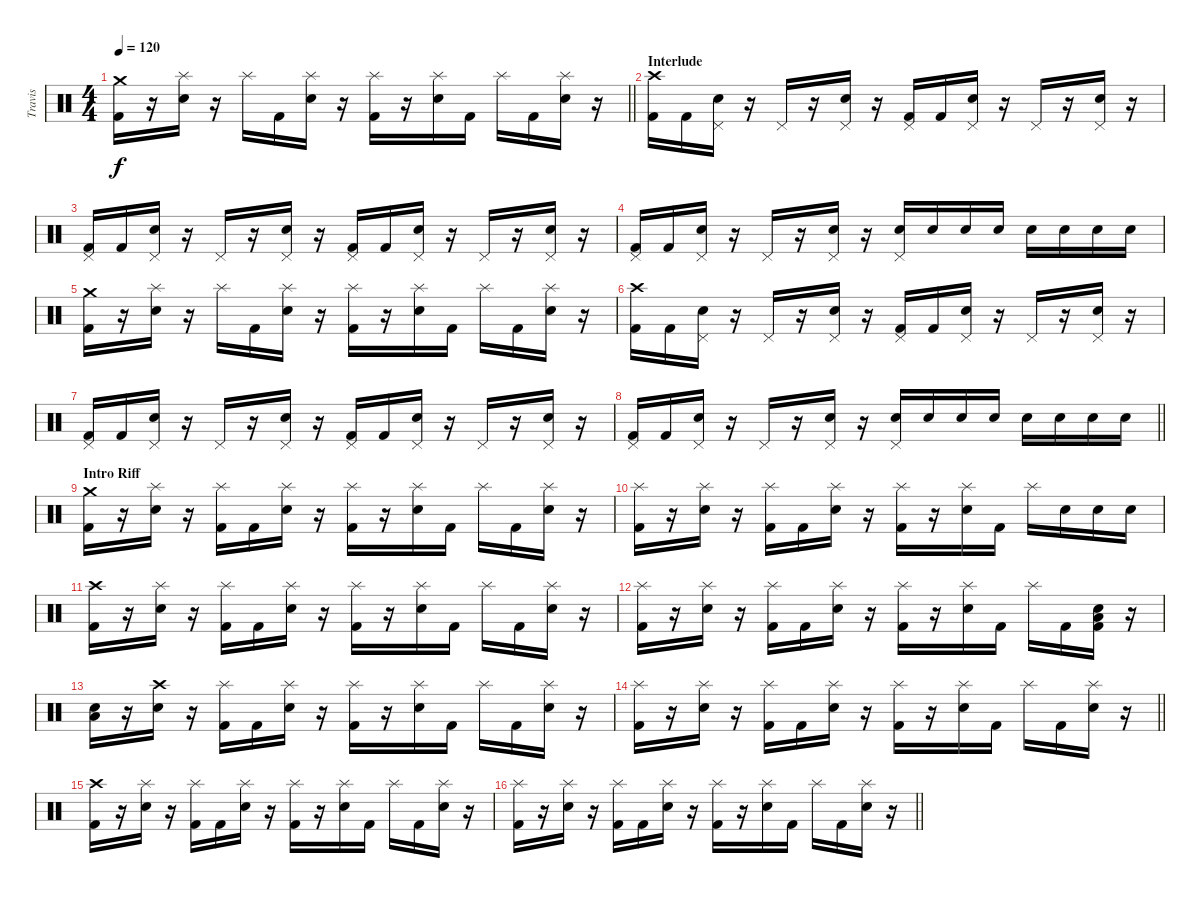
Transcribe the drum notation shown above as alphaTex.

\track ("Travis" "Travis") {instrument percussion}
\staff {score}
\articulation defaults
\ts (4 4)
\tempo 120
\clef neutral
\barLineRight lightlight
\ks c
("Crash medium (hit)" "Kick (hit) 2").16{dy f} r.16 ("Splash (hit)" "Electric Snare (hit)").16 r.16 "Splash (hit)".16 "Kick (hit) 2".16 ("Splash (hit)" "Electric Snare (hit)").16 r.16 ("Splash (hit)" "Kick (hit) 2").16 r.16 ("Splash (hit)" "Electric Snare (hit)").16 "Kick (hit) 2".16 "Splash (hit)".16 "Kick (hit) 2".16 ("Splash (hit)" "Electric Snare (hit)").16 r.16 |
\section ("" "Interlude")
("Crash high (hit)" "Kick (hit) 2").16 "Kick (hit) 2".16 ("Pedal Hi-Hat (hit)" "Electric Snare (hit)").16 r.16 "Pedal Hi-Hat (hit)".16 r.16 ("Pedal Hi-Hat (hit)" "Electric Snare (hit)").16 r.16 ("Pedal Hi-Hat (hit)" "Kick (hit) 2").16 "Kick (hit) 2".16 ("Pedal Hi-Hat (hit)" "Electric Snare (hit)").16 r.16 "Pedal Hi-Hat (hit)".16 r.16 ("Pedal Hi-Hat (hit)" "Electric Snare (hit)").16 r.16 |
("Pedal Hi-Hat (hit)" "Kick (hit) 2").16 "Kick (hit) 2".16 ("Pedal Hi-Hat (hit)" "Electric Snare (hit)").16 r.16 "Pedal Hi-Hat (hit)".16 r.16 ("Pedal Hi-Hat (hit)" "Electric Snare (hit)").16 r.16 ("Pedal Hi-Hat (hit)" "Kick (hit) 2").16 "Kick (hit) 2".16 ("Pedal Hi-Hat (hit)" "Electric Snare (hit)").16 r.16 "Pedal Hi-Hat (hit)".16 r.16 ("Pedal Hi-Hat (hit)" "Electric Snare (hit)").16 r.16 |
("Pedal Hi-Hat (hit)" "Kick (hit) 2").16 "Kick (hit) 2".16 ("Pedal Hi-Hat (hit)" "Electric Snare (hit)").16 r.16 "Pedal Hi-Hat (hit)".16 r.16 ("Pedal Hi-Hat (hit)" "Electric Snare (hit)").16 r.16 ("Pedal Hi-Hat (hit)" "Electric Snare (hit)").16 "Electric Snare (hit)".16 "Electric Snare (hit)".16 "Electric Snare (hit)".16 "Electric Snare (hit)".16 "Electric Snare (hit)".16 "Electric Snare (hit)".16 "Electric Snare (hit)".16 |
("Crash medium (hit)" "Kick (hit) 2").16 r.16 ("Splash (hit)" "Electric Snare (hit)").16 r.16 "Splash (hit)".16 "Kick (hit) 2".16 ("Splash (hit)" "Electric Snare (hit)").16 r.16 ("Splash (hit)" "Kick (hit) 2").16 r.16 ("Splash (hit)" "Electric Snare (hit)").16 "Kick (hit) 2".16 "Splash (hit)".16 "Kick (hit) 2".16 ("Splash (hit)" "Electric Snare (hit)").16 r.16 |
("Crash high (hit)" "Kick (hit) 2").16 "Kick (hit) 2".16 ("Pedal Hi-Hat (hit)" "Electric Snare (hit)").16 r.16 "Pedal Hi-Hat (hit)".16 r.16 ("Pedal Hi-Hat (hit)" "Electric Snare (hit)").16 r.16 ("Pedal Hi-Hat (hit)" "Kick (hit) 2").16 "Kick (hit) 2".16 ("Pedal Hi-Hat (hit)" "Electric Snare (hit)").16 r.16 "Pedal Hi-Hat (hit)".16 r.16 ("Pedal Hi-Hat (hit)" "Electric Snare (hit)").16 r.16 |
("Pedal Hi-Hat (hit)" "Kick (hit) 2").16 "Kick (hit) 2".16 ("Pedal Hi-Hat (hit)" "Electric Snare (hit)").16 r.16 "Pedal Hi-Hat (hit)".16 r.16 ("Pedal Hi-Hat (hit)" "Electric Snare (hit)").16 r.16 ("Pedal Hi-Hat (hit)" "Kick (hit) 2").16 "Kick (hit) 2".16 ("Pedal Hi-Hat (hit)" "Electric Snare (hit)").16 r.16 "Pedal Hi-Hat (hit)".16 r.16 ("Pedal Hi-Hat (hit)" "Electric Snare (hit)").16 r.16 |
\barLineRight lightlight
("Pedal Hi-Hat (hit)" "Kick (hit) 2").16 "Kick (hit) 2".16 ("Pedal Hi-Hat (hit)" "Electric Snare (hit)").16 r.16 "Pedal Hi-Hat (hit)".16 r.16 ("Pedal Hi-Hat (hit)" "Electric Snare (hit)").16 r.16 ("Pedal Hi-Hat (hit)" "Electric Snare (hit)").16 "Electric Snare (hit)".16 "Electric Snare (hit)".16 "Electric Snare (hit)".16 "Electric Snare (hit)".16 "Electric Snare (hit)".16 "Electric Snare (hit)".16 "Electric Snare (hit)".16 |
\section ("" "Intro Riff")
("Crash medium (hit)" "Kick (hit) 2").16 r.16 ("Splash (hit)" "Electric Snare (hit)").16 r.16 ("Splash (hit)" "Kick (hit) 2").16 "Kick (hit) 2".16 ("Splash (hit)" "Electric Snare (hit)").16 r.16 ("Splash (hit)" "Kick (hit) 2").16 r.16 ("Splash (hit)" "Electric Snare (hit)").16 "Kick (hit) 2".16 "Splash (hit)".16 "Kick (hit) 2".16 ("Splash (hit)" "Electric Snare (hit)").16 r.16 |
("Splash (hit)" "Kick (hit) 2").16 r.16 ("Splash (hit)" "Electric Snare (hit)").16 r.16 ("Splash (hit)" "Kick (hit) 2").16 "Kick (hit) 2".16 ("Splash (hit)" "Electric Snare (hit)").16 r.16 ("Splash (hit)" "Kick (hit) 2").16 r.16 ("Splash (hit)" "Electric Snare (hit)").16 "Kick (hit) 2".16 "Splash (hit)".16 "Electric Snare (hit)".16 "Electric Snare (hit)".16 "Electric Snare (hit)".16 |
("Crash high (hit)" "Kick (hit) 2").16 r.16 ("Splash (hit)" "Electric Snare (hit)").16 r.16 ("Splash (hit)" "Kick (hit) 2").16 "Kick (hit) 2".16 ("Splash (hit)" "Electric Snare (hit)").16 r.16 ("Splash (hit)" "Kick (hit) 2").16 r.16 ("Splash (hit)" "Electric Snare (hit)").16 "Kick (hit) 2".16 "Splash (hit)".16 "Kick (hit) 2".16 ("Splash (hit)" "Electric Snare (hit)").16 r.16 |
("Splash (hit)" "Kick (hit) 2").16 r.16 ("Splash (hit)" "Electric Snare (hit)").16 r.16 ("Splash (hit)" "Kick (hit) 2").16 "Kick (hit) 2".16 ("Splash (hit)" "Electric Snare (hit)").16 r.16 ("Splash (hit)" "Kick (hit) 2").16 r.16 ("Splash (hit)" "Electric Snare (hit)").16 "Kick (hit) 2".16 "Splash (hit)".16 "Kick (hit) 2".16 ("Low Floor Tom (hit)" "Electric Snare (hit)" "Kick (hit) 2").16 r.16 |
("Low Floor Tom (hit)" "Electric Snare (hit)").16 r.16 ("Crash high (hit)" "Electric Snare (hit)").16 r.16 ("Splash (hit)" "Kick (hit) 2").16 "Kick (hit) 2".16 ("Splash (hit)" "Electric Snare (hit)").16 r.16 ("Splash (hit)" "Kick (hit) 2").16 r.16 ("Splash (hit)" "Electric Snare (hit)").16 "Kick (hit) 2".16 "Splash (hit)".16 "Kick (hit) 2".16 ("Splash (hit)" "Electric Snare (hit)").16 r.16 |
\barLineRight lightlight
("Splash (hit)" "Kick (hit) 2").16 r.16 ("Splash (hit)" "Electric Snare (hit)").16 r.16 ("Splash (hit)" "Kick (hit) 2").16 "Kick (hit) 2".16 ("Splash (hit)" "Electric Snare (hit)").16 r.16 ("Splash (hit)" "Kick (hit) 2").16 r.16 ("Splash (hit)" "Electric Snare (hit)").16 "Kick (hit) 2".16 "Splash (hit)".16 "Kick (hit) 2".16 ("Splash (hit)" "Electric Snare (hit)").16 r.16 |
("Crash high (hit)" "Kick (hit) 2").16 r.16 ("Splash (hit)" "Electric Snare (hit)").16 r.16 ("Splash (hit)" "Kick (hit) 2").16 "Kick (hit) 2".16 ("Splash (hit)" "Electric Snare (hit)").16 r.16 ("Splash (hit)" "Kick (hit) 2").16 r.16 ("Splash (hit)" "Electric Snare (hit)").16 "Kick (hit) 2".16 "Splash (hit)".16 "Kick (hit) 2".16 ("Splash (hit)" "Electric Snare (hit)").16 r.16 |
\barLineRight lightlight
("Splash (hit)" "Kick (hit) 2").16 r.16 ("Splash (hit)" "Electric Snare (hit)").16 r.16 ("Splash (hit)" "Kick (hit) 2").16 "Kick (hit) 2".16 ("Splash (hit)" "Electric Snare (hit)").16 r.16 ("Splash (hit)" "Kick (hit) 2").16 r.16 ("Splash (hit)" "Electric Snare (hit)").16 "Kick (hit) 2".16 "Splash (hit)".16 "Kick (hit) 2".16 ("Splash (hit)" "Electric Snare (hit)").16 r.16
